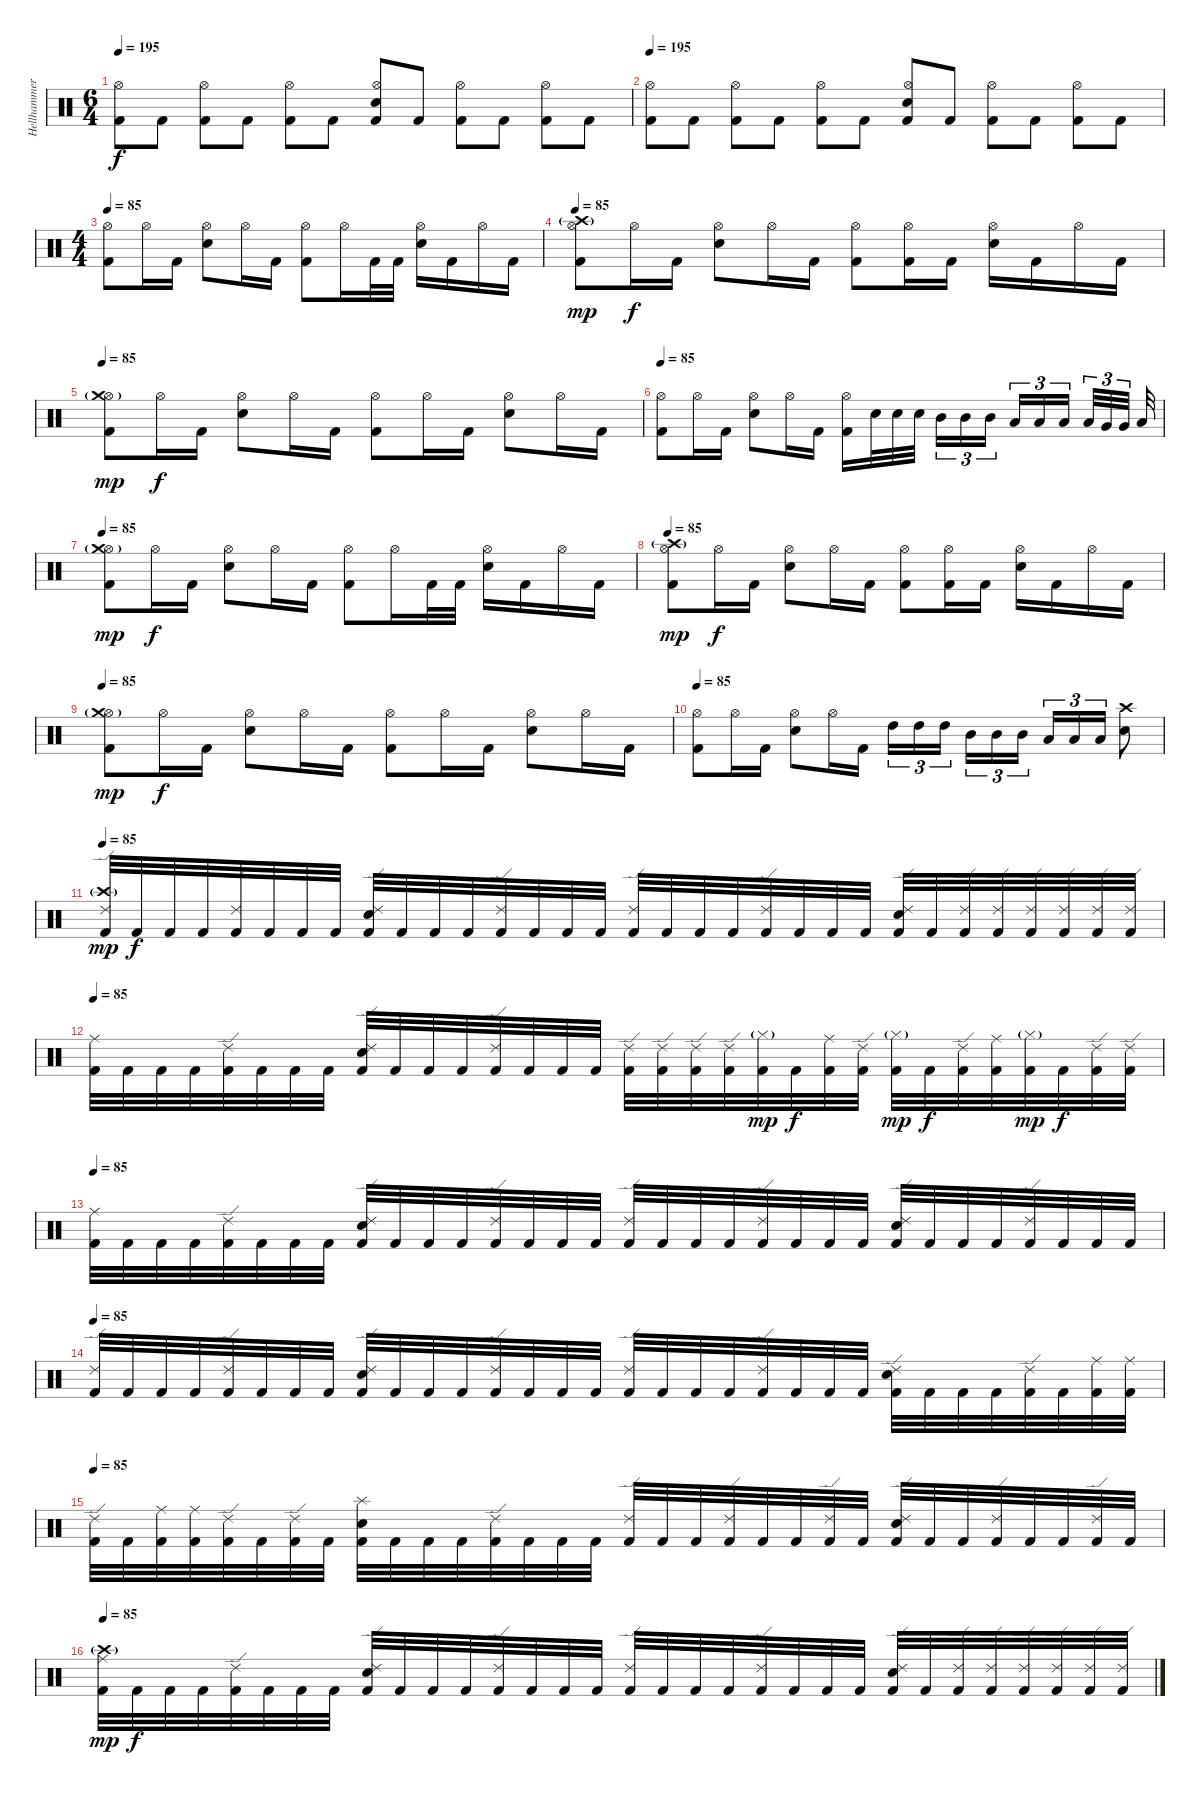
\track ("Hellhammer" "Hellhammer") {instrument percussion}
\staff {score}
\articulation defaults
\ts (6 4)
\tempo 195
\clef neutral
\ks c
("Kick (hit) 2" "Hi-Hat (open)").8{dy f} "Kick (hit) 2".8 ("Kick (hit) 2" "Hi-Hat (open)").8 "Kick (hit) 2".8 ("Kick (hit) 2" "Hi-Hat (open)").8 "Kick (hit) 2".8 ("Kick (hit) 2" "Electric Snare (hit)" "Hi-Hat (open)").8 "Kick (hit) 2".8 ("Kick (hit) 2" "Hi-Hat (open)").8 "Kick (hit) 2".8 ("Kick (hit) 2" "Hi-Hat (open)").8 "Kick (hit) 2".8 |
\tempo 195
("Kick (hit) 2" "Hi-Hat (open)").8 "Kick (hit) 2".8 ("Kick (hit) 2" "Hi-Hat (open)").8 "Kick (hit) 2".8 ("Kick (hit) 2" "Hi-Hat (open)").8 "Kick (hit) 2".8 ("Kick (hit) 2" "Electric Snare (hit)" "Hi-Hat (open)").8 "Kick (hit) 2".8 ("Kick (hit) 2" "Hi-Hat (open)").8 "Kick (hit) 2".8 ("Kick (hit) 2" "Hi-Hat (open)").8 "Kick (hit) 2".8 |
\ts (4 4)
\tempo 85
("Kick (hit) 2" "Hi-Hat (open)").8 "Hi-Hat (open)".16 "Kick (hit) 2".16 ("Electric Snare (hit)" "Hi-Hat (open)").8 "Hi-Hat (open)".16 "Kick (hit) 2".16 ("Kick (hit) 2" "Hi-Hat (open)").8 "Hi-Hat (open)".16 "Kick (hit) 2".32 "Kick (hit) 2".32 ("Electric Snare (hit)" "Hi-Hat (open)").16 "Kick (hit) 2".16 "Hi-Hat (open)".16 "Kick (hit) 2".16 |
\tempo 85
("Kick (hit) 2" "Hi-Hat (open)" "Crash high (hit)"{g}).8{dy mp} "Hi-Hat (open)".16{dy f} "Kick (hit) 2".16 ("Electric Snare (hit)" "Hi-Hat (open)").8 "Hi-Hat (open)".16 "Kick (hit) 2".16 ("Kick (hit) 2" "Hi-Hat (open)").8 ("Kick (hit) 2" "Hi-Hat (open)").16 "Kick (hit) 2".16 ("Electric Snare (hit)" "Hi-Hat (open)").16 "Kick (hit) 2".16 "Hi-Hat (open)".16 "Kick (hit) 2".16 |
\tempo 85
("Kick (hit) 2" "Hi-Hat (open)" "Crash medium (hit)"{g}).8{dy mp} "Hi-Hat (open)".16{dy f} "Kick (hit) 2".16 ("Electric Snare (hit)" "Hi-Hat (open)").8 "Hi-Hat (open)".16 "Kick (hit) 2".16 ("Kick (hit) 2" "Hi-Hat (open)").8 "Hi-Hat (open)".16 "Kick (hit) 2".16 ("Electric Snare (hit)" "Hi-Hat (open)").8 "Hi-Hat (open)".16 "Kick (hit) 2".16 |
\tempo 85
("Kick (hit) 2" "Hi-Hat (open)").8 "Hi-Hat (open)".16 "Kick (hit) 2".16 ("Electric Snare (hit)" "Hi-Hat (open)").8 "Hi-Hat (open)".16 "Kick (hit) 2".16 ("Kick (hit) 2" "Hi-Hat (open)").16 "Electric Snare (hit)".32 "Electric Snare (hit)".32 "Electric Snare (hit)".32 "Mid Tom (hit)".16{tu (3 2)} "Mid Tom (hit)".16{tu (3 2)} "Mid Tom (hit)".16{tu (3 2)} "Low Tom (hit)".16{tu (3 2)} "Low Tom (hit)".16{tu (3 2)} "Low Tom (hit)".16{tu (3 2)} "Low Tom (hit)".32{tu (3 2)} "Very Low Tom (hit)".32{tu (3 2)} "Very Low Tom (hit)".32{tu (3 2)} "Low Floor Tom (hit)".32 |
\tempo 85
("Kick (hit) 2" "Hi-Hat (open)" "Crash medium (hit)"{g}).8{dy mp} "Hi-Hat (open)".16{dy f} "Kick (hit) 2".16 ("Electric Snare (hit)" "Hi-Hat (open)").8 "Hi-Hat (open)".16 "Kick (hit) 2".16 ("Kick (hit) 2" "Hi-Hat (open)").8 "Hi-Hat (open)".16 "Kick (hit) 2".32 "Kick (hit) 2".32 ("Electric Snare (hit)" "Hi-Hat (open)").16 "Kick (hit) 2".16 "Hi-Hat (open)".16 "Kick (hit) 2".16 |
\tempo 85
("Kick (hit) 2" "Hi-Hat (open)" "Crash high (hit)"{g}).8{dy mp} "Hi-Hat (open)".16{dy f} "Kick (hit) 2".16 ("Electric Snare (hit)" "Hi-Hat (open)").8 "Hi-Hat (open)".16 "Kick (hit) 2".16 ("Kick (hit) 2" "Hi-Hat (open)").8 ("Kick (hit) 2" "Hi-Hat (open)").16 "Kick (hit) 2".16 ("Electric Snare (hit)" "Hi-Hat (open)").16 "Kick (hit) 2".16 "Hi-Hat (open)".16 "Kick (hit) 2".16 |
\tempo 85
("Kick (hit) 2" "Hi-Hat (open)" "Crash medium (hit)"{g}).8{dy mp} "Hi-Hat (open)".16{dy f} "Kick (hit) 2".16 ("Electric Snare (hit)" "Hi-Hat (open)").8 "Hi-Hat (open)".16 "Kick (hit) 2".16 ("Kick (hit) 2" "Hi-Hat (open)").8 "Hi-Hat (open)".16 "Kick (hit) 2".16 ("Electric Snare (hit)" "Hi-Hat (open)").8 "Hi-Hat (open)".16 "Kick (hit) 2".16 |
\tempo 85
("Kick (hit) 2" "Hi-Hat (open)").8 "Hi-Hat (open)".16 "Kick (hit) 2".16 ("Electric Snare (hit)" "Hi-Hat (open)").8 "Hi-Hat (open)".16 "Kick (hit) 2".16 "High Tom (hit)".16{tu (3 2)} "High Tom (hit)".16{tu (3 2)} "High Tom (hit)".16{tu (3 2)} "Mid Tom (hit)".16{tu (3 2)} "Mid Tom (hit)".16{tu (3 2)} "Mid Tom (hit)".16{tu (3 2)} "Low Tom (hit)".16{tu (3 2)} "Low Tom (hit)".16{tu (3 2)} "Low Tom (hit)".16{tu (3 2)} ("Electric Snare (hit)" "Crash high (hit)").8 |
\tempo 85
("Kick (hit) 2" "Ride (edge) 2" "Crash high (hit)"{g}).32{dy mp volume 11} "Kick (hit) 2".32{dy f} "Kick (hit) 2".32 "Kick (hit) 2".32 ("Kick (hit) 2" "Ride (edge) 2").32 "Kick (hit) 2".32 "Kick (hit) 2".32 "Kick (hit) 2".32 ("Kick (hit) 2" "Electric Snare (hit)" "Ride (edge) 2").32 "Kick (hit) 2".32 "Kick (hit) 2".32 "Kick (hit) 2".32 ("Kick (hit) 2" "Ride (edge) 2").32 "Kick (hit) 2".32 "Kick (hit) 2".32 "Kick (hit) 2".32 ("Kick (hit) 2" "Ride (edge) 2").32 "Kick (hit) 2".32 "Kick (hit) 2".32 "Kick (hit) 2".32 ("Kick (hit) 2" "Ride (edge) 2").32 "Kick (hit) 2".32 "Kick (hit) 2".32 "Kick (hit) 2".32 ("Kick (hit) 2" "Electric Snare (hit)" "Ride (edge) 2").32 "Kick (hit) 2".32 ("Kick (hit) 2" "Ride (edge) 2").32 ("Kick (hit) 2" "Ride (edge) 2").32 ("Kick (hit) 2" "Ride (edge) 2").32 ("Kick (hit) 2" "Ride (edge) 2").32 ("Kick (hit) 2" "Ride (edge) 2").32 ("Kick (hit) 2" "Ride (edge) 2").32 |
\tempo 85
("Kick (hit) 2" "Ride (middle)").32{volume 11} "Kick (hit) 2".32 "Kick (hit) 2".32 "Kick (hit) 2".32 ("Kick (hit) 2" "Ride (edge) 2").32 "Kick (hit) 2".32 "Kick (hit) 2".32 "Kick (hit) 2".32 ("Kick (hit) 2" "Electric Snare (hit)" "Ride (edge) 2").32 "Kick (hit) 2".32 "Kick (hit) 2".32 "Kick (hit) 2".32 ("Kick (hit) 2" "Ride (edge) 2").32 "Kick (hit) 2".32 "Kick (hit) 2".32 "Kick (hit) 2".32 ("Kick (hit) 2" "Ride (edge) 2").32 ("Kick (hit) 2" "Ride (edge) 2").32 ("Kick (hit) 2" "Ride (edge) 2").32 ("Kick (hit) 2" "Ride (edge) 2").32 ("Kick (hit) 2" "Hi-Hat (closed)"{g}).32{dy mp} "Kick (hit) 2".32{dy f} ("Kick (hit) 2" "Ride (middle)").32 ("Kick (hit) 2" "Ride (edge) 2").32 ("Kick (hit) 2" "Hi-Hat (closed)"{g}).32{dy mp} "Kick (hit) 2".32{dy f} ("Kick (hit) 2" "Ride (edge) 2").32 ("Kick (hit) 2" "Ride (middle)").32 ("Kick (hit) 2" "Hi-Hat (closed)"{g}).32{dy mp} "Kick (hit) 2".32{dy f} ("Kick (hit) 2" "Ride (edge) 2").32 ("Kick (hit) 2" "Ride (edge) 2").32 |
\tempo 85
("Kick (hit) 2" "Ride (middle)").32{volume 11} "Kick (hit) 2".32 "Kick (hit) 2".32 "Kick (hit) 2".32 ("Kick (hit) 2" "Ride (edge) 2").32 "Kick (hit) 2".32 "Kick (hit) 2".32 "Kick (hit) 2".32 ("Kick (hit) 2" "Electric Snare (hit)" "Ride (edge) 2").32 "Kick (hit) 2".32 "Kick (hit) 2".32 "Kick (hit) 2".32 ("Kick (hit) 2" "Ride (edge) 2").32 "Kick (hit) 2".32 "Kick (hit) 2".32 "Kick (hit) 2".32 ("Kick (hit) 2" "Ride (edge) 2").32 "Kick (hit) 2".32 "Kick (hit) 2".32 "Kick (hit) 2".32 ("Kick (hit) 2" "Ride (edge) 2").32 "Kick (hit) 2".32 "Kick (hit) 2".32 "Kick (hit) 2".32 ("Kick (hit) 2" "Electric Snare (hit)" "Ride (edge) 2").32 "Kick (hit) 2".32 "Kick (hit) 2".32 "Kick (hit) 2".32 ("Kick (hit) 2" "Ride (edge) 2").32 "Kick (hit) 2".32 "Kick (hit) 2".32 "Kick (hit) 2".32 |
\tempo 85
("Kick (hit) 2" "Ride (edge) 2").32{volume 11} "Kick (hit) 2".32 "Kick (hit) 2".32 "Kick (hit) 2".32 ("Kick (hit) 2" "Ride (edge) 2").32 "Kick (hit) 2".32 "Kick (hit) 2".32 "Kick (hit) 2".32 ("Kick (hit) 2" "Electric Snare (hit)" "Ride (edge) 2").32 "Kick (hit) 2".32 "Kick (hit) 2".32 "Kick (hit) 2".32 ("Kick (hit) 2" "Ride (edge) 2").32 "Kick (hit) 2".32 "Kick (hit) 2".32 "Kick (hit) 2".32 ("Kick (hit) 2" "Ride (edge) 2").32 "Kick (hit) 2".32 "Kick (hit) 2".32 "Kick (hit) 2".32 ("Kick (hit) 2" "Ride (edge) 2").32 "Kick (hit) 2".32 "Kick (hit) 2".32 "Kick (hit) 2".32 ("Kick (hit) 2" "Electric Snare (hit)" "Ride (edge) 2").32 "Kick (hit) 2".32 "Kick (hit) 2".32 "Kick (hit) 2".32 ("Kick (hit) 2" "Ride (edge) 2").32 "Kick (hit) 2".32 ("Kick (hit) 2" "Ride (middle)").32 ("Kick (hit) 2" "Ride (middle)").32 |
\tempo 85
("Kick (hit) 2" "Ride (edge) 2").32{volume 11} "Kick (hit) 2".32 ("Kick (hit) 2" "Ride (middle)").32 ("Kick (hit) 2" "Ride (middle)").32 ("Kick (hit) 2" "Ride (edge) 2").32 "Kick (hit) 2".32 ("Kick (hit) 2" "Ride (edge) 2").32 "Kick (hit) 2".32 ("Kick (hit) 2" "Electric Snare (hit)" "Splash (hit)").32 "Kick (hit) 2".32 "Kick (hit) 2".32 "Kick (hit) 2".32 ("Kick (hit) 2" "Ride (edge) 2").32 "Kick (hit) 2".32 "Kick (hit) 2".32 "Kick (hit) 2".32 ("Kick (hit) 2" "Ride (edge) 2").32 "Kick (hit) 2".32 "Kick (hit) 2".32 ("Kick (hit) 2" "Ride (edge) 2").32 "Kick (hit) 2".32 "Kick (hit) 2".32 ("Kick (hit) 2" "Ride (edge) 2").32 "Kick (hit) 2".32 ("Kick (hit) 2" "Electric Snare (hit)" "Ride (edge) 2").32 "Kick (hit) 2".32 "Kick (hit) 2".32 ("Kick (hit) 2" "Ride (edge) 2").32 "Kick (hit) 2".32 "Kick (hit) 2".32 ("Kick (hit) 2" "Ride (edge) 2").32 "Kick (hit) 2".32 |
\tempo 85
("Kick (hit) 2" "Ride (middle)" "Crash high (hit)"{g}).32{dy mp volume 11} "Kick (hit) 2".32{dy f} "Kick (hit) 2".32 "Kick (hit) 2".32 ("Kick (hit) 2" "Ride (edge) 2").32 "Kick (hit) 2".32 "Kick (hit) 2".32 "Kick (hit) 2".32 ("Kick (hit) 2" "Electric Snare (hit)" "Ride (edge) 2").32 "Kick (hit) 2".32 "Kick (hit) 2".32 "Kick (hit) 2".32 ("Kick (hit) 2" "Ride (edge) 2").32 "Kick (hit) 2".32 "Kick (hit) 2".32 "Kick (hit) 2".32 ("Kick (hit) 2" "Ride (edge) 2").32 "Kick (hit) 2".32 "Kick (hit) 2".32 "Kick (hit) 2".32 ("Kick (hit) 2" "Ride (edge) 2").32 "Kick (hit) 2".32 "Kick (hit) 2".32 "Kick (hit) 2".32 ("Kick (hit) 2" "Electric Snare (hit)" "Ride (edge) 2").32 "Kick (hit) 2".32 ("Kick (hit) 2" "Ride (edge) 2").32 ("Kick (hit) 2" "Ride (edge) 2").32 ("Kick (hit) 2" "Ride (edge) 2").32 ("Kick (hit) 2" "Ride (edge) 2").32 ("Kick (hit) 2" "Ride (edge) 2").32 ("Kick (hit) 2" "Ride (edge) 2").32
